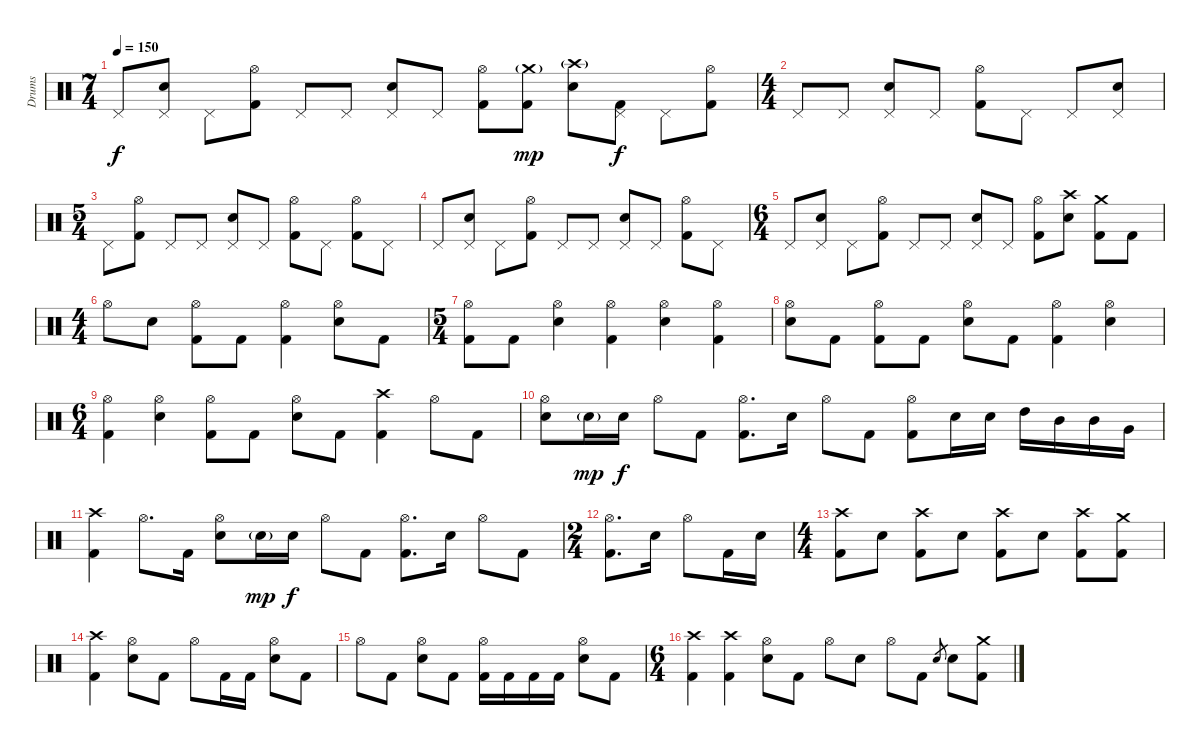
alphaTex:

\track ("Drums" "Drums") {instrument percussion}
\staff {score}
\articulation defaults
\ts (7 4)
\tempo 150
\clef neutral
\ks c "Pedal Hi-Hat (hit)".8{dy f}
("Pedal Hi-Hat (hit)" "Electric Snare (hit)").8 "Pedal Hi-Hat (hit)".8 ("Hi-Hat (open)" "Kick (hit) 2").8 "Pedal Hi-Hat (hit)".8 "Pedal Hi-Hat (hit)".8 ("Pedal Hi-Hat (hit)" "Electric Snare (hit)").8 "Pedal Hi-Hat (hit)".8 ("Hi-Hat (open)" "Kick (hit) 2").8 ("Crash medium (hit)"{g} "Kick (hit) 2").8{dy mp} ("Crash high (hit)"{g} "Electric Snare (hit)").8 ("Pedal Hi-Hat (hit)" "Kick (hit) 2").8{dy f} "Pedal Hi-Hat (hit)".8 ("Hi-Hat (open)" "Kick (hit) 2").8 |
\ts (4 4)
"Pedal Hi-Hat (hit)".8 "Pedal Hi-Hat (hit)".8 ("Pedal Hi-Hat (hit)" "Electric Snare (hit)").8 "Pedal Hi-Hat (hit)".8 ("Hi-Hat (open)" "Kick (hit) 2").8 "Pedal Hi-Hat (hit)".8 "Pedal Hi-Hat (hit)".8 ("Pedal Hi-Hat (hit)" "Electric Snare (hit)").8 |
\ts (5 4)
"Pedal Hi-Hat (hit)".8 ("Hi-Hat (open)" "Kick (hit) 2").8 "Pedal Hi-Hat (hit)".8 "Pedal Hi-Hat (hit)".8 ("Pedal Hi-Hat (hit)" "Electric Snare (hit)").8 "Pedal Hi-Hat (hit)".8 ("Hi-Hat (open)" "Kick (hit) 2").8 "Pedal Hi-Hat (hit)".8 ("Hi-Hat (open)" "Kick (hit) 2").8 "Pedal Hi-Hat (hit)".8 |
"Pedal Hi-Hat (hit)".8 ("Pedal Hi-Hat (hit)" "Electric Snare (hit)").8 "Pedal Hi-Hat (hit)".8 ("Hi-Hat (open)" "Kick (hit) 2").8 "Pedal Hi-Hat (hit)".8 "Pedal Hi-Hat (hit)".8 ("Pedal Hi-Hat (hit)" "Electric Snare (hit)").8 "Pedal Hi-Hat (hit)".8 ("Hi-Hat (open)" "Kick (hit) 2").8 "Pedal Hi-Hat (hit)".8 |
\ts (6 4)
"Pedal Hi-Hat (hit)".8 ("Pedal Hi-Hat (hit)" "Electric Snare (hit)").8 "Pedal Hi-Hat (hit)".8 ("Hi-Hat (open)" "Kick (hit) 2").8 "Pedal Hi-Hat (hit)".8 "Pedal Hi-Hat (hit)".8 ("Pedal Hi-Hat (hit)" "Electric Snare (hit)").8 "Pedal Hi-Hat (hit)".8 ("Hi-Hat (open)" "Kick (hit) 2").8 ("Crash high (hit)" "Electric Snare (hit)").8 ("Crash medium (hit)" "Kick (hit) 2").8 "Kick (hit) 2".8 |
\ts (4 4)
"Hi-Hat (open)".8 "Electric Snare (hit)".8 ("Hi-Hat (open)" "Kick (hit) 2").8 "Kick (hit) 2".8 ("Hi-Hat (open)" "Kick (hit) 2").4 ("Hi-Hat (open)" "Electric Snare (hit)").8 "Kick (hit) 2".8 |
\ts (5 4)
("Hi-Hat (open)" "Kick (hit) 2").8 "Kick (hit) 2".8 ("Hi-Hat (open)" "Electric Snare (hit)").4 ("Hi-Hat (open)" "Kick (hit) 2").4 ("Hi-Hat (open)" "Electric Snare (hit)").4 ("Hi-Hat (open)" "Kick (hit) 2").4 |
("Hi-Hat (open)" "Electric Snare (hit)").8 "Kick (hit) 2".8 ("Hi-Hat (open)" "Kick (hit) 2").8 "Kick (hit) 2".8 ("Hi-Hat (open)" "Electric Snare (hit)").8 "Kick (hit) 2".8 ("Hi-Hat (open)" "Kick (hit) 2").4 ("Hi-Hat (open)" "Electric Snare (hit)").4 |
\ts (6 4)
("Hi-Hat (open)" "Kick (hit) 2").4 ("Hi-Hat (open)" "Electric Snare (hit)").4 ("Hi-Hat (open)" "Kick (hit) 2").8 "Kick (hit) 2".8 ("Hi-Hat (open)" "Electric Snare (hit)").8 "Kick (hit) 2".8 ("Crash high (hit)" "Kick (hit) 2").4 "Hi-Hat (open)".8 "Kick (hit) 2".8 |
("Hi-Hat (open)" "Electric Snare (hit)").8 "Electric Snare (hit)"{g}.16{dy mp} "Electric Snare (hit)".16{dy f} "Hi-Hat (open)".8 "Kick (hit) 2".8 ("Hi-Hat (open)" "Kick (hit) 2").8{d} "Electric Snare (hit)".16 "Hi-Hat (open)".8 "Kick (hit) 2".8 ("Hi-Hat (open)" "Kick (hit) 2").8 "Electric Snare (hit)".16 "Electric Snare (hit)".16 "High Tom (hit)".16 "Mid Tom (hit)".16 "Mid Tom (hit)".16 "Very Low Tom (hit)".16 |
("Crash high (hit)" "Kick (hit) 2").4 "Hi-Hat (open)".8{d} "Kick (hit) 2".16 ("Hi-Hat (open)" "Electric Snare (hit)").8 "Electric Snare (hit)"{g}.16{dy mp} "Electric Snare (hit)".16{dy f} "Hi-Hat (open)".8 "Kick (hit) 2".8 ("Hi-Hat (open)" "Kick (hit) 2").8{d} "Electric Snare (hit)".16 "Hi-Hat (open)".8 "Kick (hit) 2".8 |
\ts (2 4)
("Hi-Hat (open)" "Kick (hit) 2").8{d} "Electric Snare (hit)".16 "Hi-Hat (open)".8 "Kick (hit) 2".16 "Electric Snare (hit)".16 |
\ts (4 4)
("Crash high (hit)" "Kick (hit) 2").8 "Electric Snare (hit)".8 ("Crash high (hit)" "Kick (hit) 2").8 "Electric Snare (hit)".8 ("Crash high (hit)" "Kick (hit) 2").8 "Electric Snare (hit)".8 ("Crash high (hit)" "Kick (hit) 2").8 ("Crash medium (hit)" "Kick (hit) 2").8 |
("Crash high (hit)" "Kick (hit) 2").4 ("Hi-Hat (open)" "Electric Snare (hit)").8 "Kick (hit) 2".8 "Hi-Hat (open)".8 "Kick (hit) 2".16 "Kick (hit) 2".16 ("Hi-Hat (open)" "Electric Snare (hit)").8 "Kick (hit) 2".8 |
"Hi-Hat (open)".8 "Kick (hit) 2".8 ("Hi-Hat (open)" "Electric Snare (hit)").8 "Kick (hit) 2".8 ("Hi-Hat (open)" "Kick (hit) 2").16 "Kick (hit) 2".16 "Kick (hit) 2".16 "Kick (hit) 2".16 ("Hi-Hat (open)" "Electric Snare (hit)").8 "Kick (hit) 2".8 |
\ts (6 4)
("Crash high (hit)" "Kick (hit) 2").4 ("Crash high (hit)" "Kick (hit) 2").4 ("Hi-Hat (open)" "Electric Snare (hit)").8 "Kick (hit) 2".8 "Hi-Hat (open)".8 "Electric Snare (hit)".8 "Hi-Hat (open)".8 "Kick (hit) 2".8 "Electric Snare (hit)".8{gr} "Electric Snare (hit)".8 ("Crash medium (hit)" "Kick (hit) 2").8
